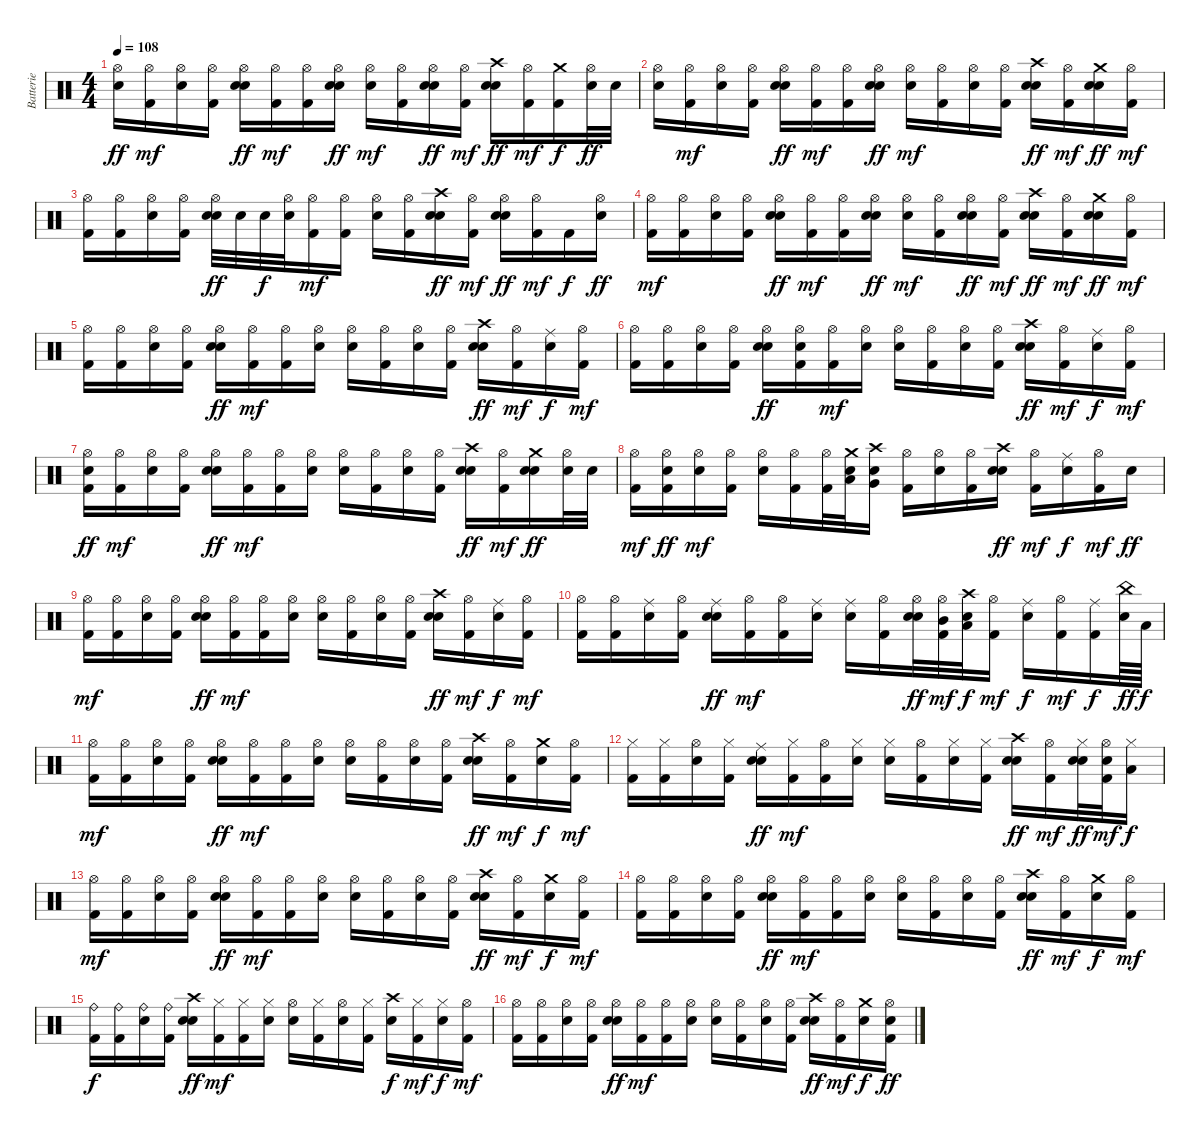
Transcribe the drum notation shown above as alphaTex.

\track ("Batterie" "Batterie") {instrument percussion}
\staff {score}
\articulation defaults
\ts (4 4)
\tempo 108
\clef neutral
\ks c
("Hi-Hat (open)" "Snare (hit) 2").16{dy ff} ("Hi-Hat (open)" "Kick (hit) 2").16{dy mf} ("Hi-Hat (open)" "Snare (hit)").16 ("Hi-Hat (open)" "Kick (hit) 2").16 ("Hi-Hat (open)" "Snare (hit) 2" "Snare (hit)").16{dy ff} ("Hi-Hat (open)" "Kick (hit) 2").16{dy mf} ("Hi-Hat (open)" "Kick (hit) 2").16 ("Hi-Hat (open)" "Snare (hit) 2" "Snare (hit)").16{dy ff} ("Hi-Hat (open)" "Snare (hit)").16{dy mf} ("Hi-Hat (open)" "Kick (hit) 2").16 ("Hi-Hat (open)" "Snare (hit) 2" "Snare (hit)").16{dy ff} ("Hi-Hat (open)" "Kick (hit) 2").16{dy mf} ("Crash high (hit)" "Snare (hit) 2" "Snare (hit)").16{dy ff} ("Hi-Hat (open)" "Kick (hit) 2").16{dy mf} ("Crash medium (hit)" "Kick (hit) 2").16{dy f} ("Hi-Hat (open)" "Snare (hit) 2").32{dy ff} "Snare (hit) 2".32 |
("Hi-Hat (open)" "Snare (hit) 2").16 ("Hi-Hat (open)" "Kick (hit) 2").16{dy mf} ("Hi-Hat (open)" "Snare (hit)").16 ("Hi-Hat (open)" "Kick (hit) 2").16 ("Hi-Hat (open)" "Snare (hit) 2" "Snare (hit)").16{dy ff} ("Hi-Hat (open)" "Kick (hit) 2").16{dy mf} ("Hi-Hat (open)" "Kick (hit) 2").16 ("Hi-Hat (open)" "Snare (hit) 2" "Snare (hit)").16{dy ff} ("Hi-Hat (open)" "Snare (hit)").16{dy mf} ("Hi-Hat (open)" "Kick (hit) 2").16 ("Hi-Hat (open)" "Snare (hit)").16 ("Hi-Hat (open)" "Kick (hit) 2").16 ("Crash high (hit)" "Snare (hit) 2" "Snare (hit)").16{dy ff} ("Hi-Hat (open)" "Kick (hit) 2").16{dy mf} ("Crash medium (hit)" "Snare (hit) 2" "Snare (hit)").16{dy ff} ("Hi-Hat (open)" "Kick (hit) 2").16{dy mf} |
("Hi-Hat (open)" "Kick (hit) 2").16 ("Hi-Hat (open)" "Kick (hit) 2").16 ("Hi-Hat (open)" "Snare (hit)").16 ("Hi-Hat (open)" "Kick (hit) 2").16 ("Hi-Hat (open)" "Snare (hit) 2" "Snare (hit)").32{dy ff} "Snare (hit) 2".32 "Snare (hit) 2".32{dy f} ("Hi-Hat (open)" "Snare (hit)").32 ("Hi-Hat (open)" "Kick (hit) 2").16{dy mf} ("Hi-Hat (open)" "Kick (hit) 2").16 ("Hi-Hat (open)" "Snare (hit)").16 ("Hi-Hat (open)" "Kick (hit) 2").16 ("Crash high (hit)" "Snare (hit) 2" "Snare (hit)").16{dy ff} ("Hi-Hat (open)" "Kick (hit) 2").16{dy mf} ("Hi-Hat (open)" "Snare (hit) 2" "Snare (hit)").16{dy ff} ("Hi-Hat (open)" "Kick (hit) 2").16{dy mf} "Kick (hit) 2".16{dy f} ("Hi-Hat (open)" "Snare (hit) 2").16{dy ff} |
("Hi-Hat (open)" "Kick (hit) 2").16{dy mf} ("Hi-Hat (open)" "Kick (hit) 2").16 ("Hi-Hat (open)" "Snare (hit)").16 ("Hi-Hat (open)" "Kick (hit) 2").16 ("Hi-Hat (open)" "Snare (hit) 2" "Snare (hit)").16{dy ff} ("Hi-Hat (open)" "Kick (hit) 2").16{dy mf} ("Hi-Hat (open)" "Kick (hit) 2").16 ("Hi-Hat (open)" "Snare (hit) 2" "Snare (hit)").16{dy ff} ("Hi-Hat (open)" "Snare (hit)").16{dy mf} ("Hi-Hat (open)" "Kick (hit) 2").16 ("Hi-Hat (open)" "Snare (hit) 2" "Snare (hit)").16{dy ff} ("Hi-Hat (open)" "Kick (hit) 2").16{dy mf} ("Crash high (hit)" "Snare (hit) 2" "Snare (hit)").16{dy ff} ("Hi-Hat (open)" "Kick (hit) 2").16{dy mf} ("Crash medium (hit)" "Snare (hit) 2" "Snare (hit)").16{dy ff} ("Hi-Hat (open)" "Kick (hit) 2").16{dy mf} |
("Hi-Hat (open)" "Kick (hit) 2").16 ("Hi-Hat (open)" "Kick (hit) 2").16 ("Hi-Hat (open)" "Snare (hit)").16 ("Hi-Hat (open)" "Kick (hit) 2").16 ("Hi-Hat (open)" "Snare (hit) 2" "Snare (hit)").16{dy ff} ("Hi-Hat (open)" "Kick (hit) 2").16{dy mf} ("Hi-Hat (open)" "Kick (hit) 2").16 ("Hi-Hat (open)" "Snare (hit)").16 ("Hi-Hat (open)" "Snare (hit)").16 ("Hi-Hat (open)" "Kick (hit) 2").16 ("Hi-Hat (open)" "Snare (hit)").16 ("Hi-Hat (open)" "Kick (hit) 2").16 ("Crash high (hit)" "Snare (hit) 2" "Snare (hit)").16{dy ff} ("Hi-Hat (open)" "Kick (hit) 2").16{dy mf} ("Ride (middle)" "Snare (hit)").16{dy f} ("Hi-Hat (open)" "Kick (hit) 2").16{dy mf} |
("Hi-Hat (open)" "Kick (hit) 2").16 ("Hi-Hat (open)" "Kick (hit) 2").16 ("Hi-Hat (open)" "Snare (hit)").16 ("Hi-Hat (open)" "Kick (hit) 2").16 ("Hi-Hat (open)" "Snare (hit) 2" "Snare (hit)").16{dy ff} ("Hi-Hat (open)" "Snare (hit) 2" "Kick (hit) 2").16 ("Hi-Hat (open)" "Kick (hit) 2").16{dy mf} ("Hi-Hat (open)" "Snare (hit)").16 ("Hi-Hat (open)" "Snare (hit)").16 ("Hi-Hat (open)" "Kick (hit) 2").16 ("Hi-Hat (open)" "Snare (hit)").16 ("Hi-Hat (open)" "Kick (hit) 2").16 ("Crash high (hit)" "Snare (hit) 2" "Snare (hit)").16{dy ff} ("Hi-Hat (open)" "Kick (hit) 2").16{dy mf} ("Ride (middle)" "Snare (hit)").16{dy f} ("Hi-Hat (open)" "Kick (hit) 2").16{dy mf} |
("Hi-Hat (open)" "Snare (hit) 2" "Kick (hit) 2").16{dy ff} ("Hi-Hat (open)" "Kick (hit) 2").16{dy mf} ("Hi-Hat (open)" "Snare (hit)").16 ("Hi-Hat (open)" "Kick (hit) 2").16 ("Hi-Hat (open)" "Snare (hit) 2" "Snare (hit)").16{dy ff} ("Hi-Hat (open)" "Kick (hit) 2").16{dy mf} ("Hi-Hat (open)" "Kick (hit) 2").16 ("Hi-Hat (open)" "Snare (hit)").16 ("Hi-Hat (open)" "Snare (hit)").16 ("Hi-Hat (open)" "Kick (hit) 2").16 ("Hi-Hat (open)" "Snare (hit)").16 ("Hi-Hat (open)" "Kick (hit) 2").16 ("Crash high (hit)" "Snare (hit) 2" "Snare (hit)").16{dy ff} ("Hi-Hat (open)" "Kick (hit) 2").16{dy mf} ("Crash medium (hit)" "Snare (hit) 2" "Snare (hit)").16{dy ff} ("Hi-Hat (open)" "Snare (hit) 2").32 "Snare (hit) 2".32 |
("Hi-Hat (open)" "Kick (hit) 2").16{dy mf} ("Hi-Hat (open)" "Snare (hit) 2" "Kick (hit) 2").16{dy ff} ("Hi-Hat (open)" "Snare (hit)").16{dy mf} ("Hi-Hat (open)" "Kick (hit) 2").16 ("Hi-Hat (open)" "Snare (hit)").16 ("Hi-Hat (open)" "Kick (hit) 2").16 ("Hi-Hat (open)" "Kick (hit) 2").32 ("Crash medium (hit)" "Low Tom (hit)" "Snare (hit)").32 ("Crash high (hit)" "Very Low Tom (hit)" "Snare (hit)").16 ("Hi-Hat (open)" "Kick (hit) 2").16 ("Hi-Hat (open)" "Snare (hit)").16 ("Hi-Hat (open)" "Kick (hit) 2").16 ("Crash high (hit)" "Snare (hit) 2" "Snare (hit)").16{dy ff} ("Hi-Hat (open)" "Kick (hit) 2").16{dy mf} ("Ride (middle)" "Snare (hit)").16{dy f} ("Hi-Hat (open)" "Kick (hit) 2").16{dy mf} "Snare (hit) 2".16{dy ff} |
("Hi-Hat (open)" "Kick (hit) 2").16{dy mf} ("Hi-Hat (open)" "Kick (hit) 2").16 ("Hi-Hat (open)" "Snare (hit)").16 ("Hi-Hat (open)" "Kick (hit) 2").16 ("Hi-Hat (open)" "Snare (hit) 2" "Snare (hit)").16{dy ff} ("Hi-Hat (open)" "Kick (hit) 2").16{dy mf} ("Hi-Hat (open)" "Kick (hit) 2").16 ("Hi-Hat (open)" "Snare (hit)").16 ("Hi-Hat (open)" "Snare (hit)").16 ("Hi-Hat (open)" "Kick (hit) 2").16 ("Hi-Hat (open)" "Snare (hit)").16 ("Hi-Hat (open)" "Kick (hit) 2").16 ("Crash high (hit)" "Snare (hit) 2" "Snare (hit)").16{dy ff} ("Hi-Hat (open)" "Kick (hit) 2").16{dy mf} ("Ride (middle)" "Snare (hit)").16{dy f} ("Hi-Hat (open)" "Kick (hit) 2").16{dy mf} |
("Hi-Hat (open)" "Kick (hit) 2").16 ("Hi-Hat (open)" "Kick (hit) 2").16 ("Ride (middle)" "Snare (hit)").16 ("Hi-Hat (open)" "Kick (hit) 2").16 ("Ride (middle)" "Snare (hit) 2" "Snare (hit)").16{dy ff} ("Hi-Hat (open)" "Kick (hit) 2").16{dy mf} ("Hi-Hat (open)" "Kick (hit) 2").16 ("Ride (middle)" "Snare (hit)").16 ("Ride (middle)" "Snare (hit)").16 ("Hi-Hat (open)" "Kick (hit) 2").16 ("Hi-Hat (open)" "Snare (hit) 2" "Snare (hit)").32{dy ff} ("Hi-Hat (open)" "Mid Tom (hit)" "Kick (hit) 2").32{dy mf} ("Crash high (hit)" "Low Tom (hit)" "Snare (hit)").32{dy f} ("Hi-Hat (open)" "Kick (hit) 2").16{dy mf} ("Ride (middle)" "Snare (hit)").16{dy f} ("Hi-Hat (open)" "Kick (hit) 2").16{dy mf} ("Ride (middle)" "Kick (hit) 2").16{dy f} ("China (hit)" "Snare (hit) 2").64{dy ff} "Low Floor Tom (hit)".64{dy f} |
("Hi-Hat (open)" "Kick (hit) 2").16{dy mf} ("Hi-Hat (open)" "Kick (hit) 2").16 ("Hi-Hat (open)" "Snare (hit)").16 ("Hi-Hat (open)" "Kick (hit) 2").16 ("Hi-Hat (open)" "Snare (hit) 2" "Snare (hit)").16{dy ff} ("Hi-Hat (open)" "Kick (hit) 2").16{dy mf} ("Hi-Hat (open)" "Kick (hit) 2").16 ("Hi-Hat (open)" "Snare (hit)").16 ("Hi-Hat (open)" "Snare (hit)").16 ("Hi-Hat (open)" "Kick (hit) 2").16 ("Hi-Hat (open)" "Snare (hit)").16 ("Hi-Hat (open)" "Kick (hit) 2").16 ("Crash high (hit)" "Snare (hit) 2" "Snare (hit)").16{dy ff} ("Hi-Hat (open)" "Kick (hit) 2").16{dy mf} ("Crash medium (hit)" "Snare (hit)").16{dy f} ("Hi-Hat (open)" "Kick (hit) 2").16{dy mf} |
("Hi-Hat (closed)" "Kick (hit) 2").16 ("Hi-Hat (closed)" "Kick (hit) 2").16 ("Hi-Hat (open)" "Snare (hit)").16 ("Hi-Hat (closed)" "Kick (hit) 2").16 ("Ride (middle)" "Snare (hit) 2" "Snare (hit)").16{dy ff} ("Hi-Hat (closed)" "Kick (hit) 2").16{dy mf} ("Hi-Hat (open)" "Kick (hit) 2").16 ("Hi-Hat (closed)" "Snare (hit)").16 ("Hi-Hat (closed)" "Snare (hit)").16 ("Hi-Hat (open)" "Kick (hit) 2").16 ("Hi-Hat (closed)" "Snare (hit)").16 ("Hi-Hat (closed)" "Kick (hit) 2").16 ("Crash high (hit)" "Snare (hit) 2" "Snare (hit)").16{dy ff} ("Hi-Hat (open)" "Kick (hit) 2").16{dy mf} ("Hi-Hat (closed)" "Snare (hit) 2" "Snare (hit)").32{dy ff} ("Hi-Hat (open)" "Snare (hit) 2" "Kick (hit) 2").32{dy mf} ("Hi-Hat (closed)" "Low Floor Tom (hit)").16{dy f} |
("Hi-Hat (open)" "Kick (hit) 2").16{dy mf} ("Hi-Hat (open)" "Kick (hit) 2").16 ("Hi-Hat (open)" "Snare (hit)").16 ("Hi-Hat (open)" "Kick (hit) 2").16 ("Hi-Hat (open)" "Snare (hit) 2" "Snare (hit)").16{dy ff} ("Hi-Hat (open)" "Kick (hit) 2").16{dy mf} ("Hi-Hat (open)" "Kick (hit) 2").16 ("Hi-Hat (open)" "Snare (hit)").16 ("Hi-Hat (open)" "Snare (hit)").16 ("Hi-Hat (open)" "Kick (hit) 2").16 ("Hi-Hat (open)" "Snare (hit)").16 ("Hi-Hat (open)" "Kick (hit) 2").16 ("Crash high (hit)" "Snare (hit) 2" "Snare (hit)").16{dy ff} ("Hi-Hat (open)" "Kick (hit) 2").16{dy mf} ("Crash medium (hit)" "Snare (hit)").16{dy f} ("Hi-Hat (open)" "Kick (hit) 2").16{dy mf} |
("Hi-Hat (open)" "Kick (hit) 2").16 ("Hi-Hat (open)" "Kick (hit) 2").16 ("Hi-Hat (open)" "Snare (hit)").16 ("Hi-Hat (open)" "Kick (hit) 2").16 ("Hi-Hat (open)" "Snare (hit) 2" "Snare (hit)").16{dy ff} ("Hi-Hat (open)" "Kick (hit) 2").16{dy mf} ("Hi-Hat (open)" "Kick (hit) 2").16 ("Hi-Hat (open)" "Snare (hit)").16 ("Hi-Hat (open)" "Snare (hit)").16 ("Hi-Hat (open)" "Kick (hit) 2").16 ("Hi-Hat (open)" "Snare (hit)").16 ("Hi-Hat (open)" "Kick (hit) 2").16 ("Crash high (hit)" "Snare (hit) 2" "Snare (hit)").16{dy ff} ("Hi-Hat (open)" "Kick (hit) 2").16{dy mf} ("Crash medium (hit)" "Snare (hit)").16{dy f} ("Hi-Hat (open)" "Kick (hit) 2").16{dy mf} |
("Ride (bell)" "Kick (hit) 2").16{dy f} ("Ride (bell)" "Kick (hit) 2").16 ("Ride (bell)" "Snare (hit)").16 ("Ride (bell)" "Kick (hit) 2").16 ("Crash high (hit)" "Snare (hit) 2" "Snare (hit)").16{dy ff} ("Hi-Hat (closed)" "Kick (hit) 2").16{dy mf} ("Hi-Hat (closed)" "Kick (hit) 2").16 ("Hi-Hat (closed)" "Snare (hit)").16 ("Hi-Hat (open)" "Snare (hit)").16 ("Hi-Hat (closed)" "Kick (hit) 2").16 ("Hi-Hat (open)" "Snare (hit)").16 ("Hi-Hat (closed)" "Kick (hit) 2").16 ("Crash high (hit)" "Snare (hit)").16{dy f} ("Hi-Hat (closed)" "Kick (hit) 2").16{dy mf} ("Hi-Hat (closed)" "Snare (hit)").16{dy f} ("Hi-Hat (open)" "Kick (hit) 2").16{dy mf} |
("Hi-Hat (open)" "Kick (hit) 2").16 ("Hi-Hat (open)" "Kick (hit) 2").16 ("Hi-Hat (open)" "Snare (hit)").16 ("Hi-Hat (open)" "Kick (hit) 2").16 ("Hi-Hat (open)" "Snare (hit) 2" "Snare (hit)").16{dy ff} ("Hi-Hat (open)" "Kick (hit) 2").16{dy mf} ("Hi-Hat (open)" "Kick (hit) 2").16 ("Hi-Hat (open)" "Snare (hit)").16 ("Hi-Hat (open)" "Snare (hit)").16 ("Hi-Hat (open)" "Kick (hit) 2").16 ("Hi-Hat (open)" "Snare (hit)").16 ("Hi-Hat (open)" "Kick (hit) 2").16 ("Crash high (hit)" "Snare (hit) 2" "Snare (hit)").16{dy ff} ("Hi-Hat (open)" "Kick (hit) 2").16{dy mf} ("Crash medium (hit)" "Snare (hit)").16{dy f} ("Hi-Hat (open)" "Snare (hit) 2" "Kick (hit) 2").16{dy ff}
